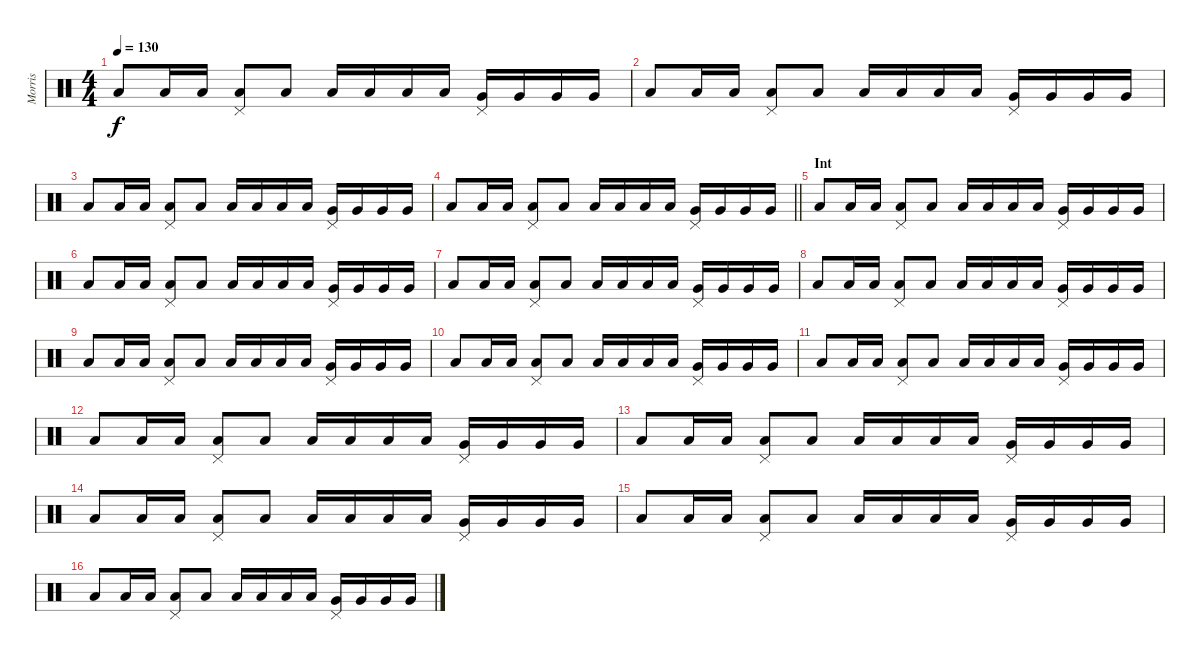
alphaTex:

\track ("Morris" "Morris") {instrument percussion}
\staff {score}
\articulation defaults
\ts (4 4)
\tempo 130
\clef neutral
\ks c "Low Floor Tom (hit)".8{dy f} "Low Floor Tom (hit)".16 "Low Floor Tom (hit)".16
("Low Tom (hit)" "Pedal Hi-Hat (hit)").8 "Low Floor Tom (hit)".8 "Low Tom (hit)".16 "Low Tom (hit)".16 "Low Tom (hit)".16 "Low Tom (hit)".16 ("Very Low Tom (hit)" "Pedal Hi-Hat (hit)").16 "Very Low Tom (hit)".16 "Very Low Tom (hit)".16 "Very Low Tom (hit)".16 |
"Low Floor Tom (hit)".8 "Low Floor Tom (hit)".16 "Low Floor Tom (hit)".16 ("Low Tom (hit)" "Pedal Hi-Hat (hit)").8 "Low Floor Tom (hit)".8 "Low Tom (hit)".16 "Low Tom (hit)".16 "Low Tom (hit)".16 "Low Tom (hit)".16 ("Very Low Tom (hit)" "Pedal Hi-Hat (hit)").16 "Very Low Tom (hit)".16 "Very Low Tom (hit)".16 "Very Low Tom (hit)".16 |
"Low Floor Tom (hit)".8 "Low Floor Tom (hit)".16 "Low Floor Tom (hit)".16 ("Low Tom (hit)" "Pedal Hi-Hat (hit)").8 "Low Floor Tom (hit)".8 "Low Tom (hit)".16 "Low Tom (hit)".16 "Low Tom (hit)".16 "Low Tom (hit)".16 ("Very Low Tom (hit)" "Pedal Hi-Hat (hit)").16 "Very Low Tom (hit)".16 "Very Low Tom (hit)".16 "Very Low Tom (hit)".16 |
\barLineRight lightlight "Low Floor Tom (hit)".8 "Low Floor Tom (hit)".16 "Low Floor Tom (hit)".16
("Low Tom (hit)" "Pedal Hi-Hat (hit)").8 "Low Floor Tom (hit)".8 "Low Tom (hit)".16 "Low Tom (hit)".16 "Low Tom (hit)".16 "Low Tom (hit)".16 ("Very Low Tom (hit)" "Pedal Hi-Hat (hit)").16 "Very Low Tom (hit)".16 "Very Low Tom (hit)".16 "Very Low Tom (hit)".16 |
\section ("" "Int")
"Low Floor Tom (hit)".8 "Low Floor Tom (hit)".16 "Low Floor Tom (hit)".16 ("Low Tom (hit)" "Pedal Hi-Hat (hit)").8 "Low Floor Tom (hit)".8 "Low Tom (hit)".16 "Low Tom (hit)".16 "Low Tom (hit)".16 "Low Tom (hit)".16 ("Very Low Tom (hit)" "Pedal Hi-Hat (hit)").16 "Very Low Tom (hit)".16 "Very Low Tom (hit)".16 "Very Low Tom (hit)".16 |
"Low Floor Tom (hit)".8 "Low Floor Tom (hit)".16 "Low Floor Tom (hit)".16 ("Low Tom (hit)" "Pedal Hi-Hat (hit)").8 "Low Floor Tom (hit)".8 "Low Tom (hit)".16 "Low Tom (hit)".16 "Low Tom (hit)".16 "Low Tom (hit)".16 ("Very Low Tom (hit)" "Pedal Hi-Hat (hit)").16 "Very Low Tom (hit)".16 "Very Low Tom (hit)".16 "Very Low Tom (hit)".16 |
"Low Floor Tom (hit)".8 "Low Floor Tom (hit)".16 "Low Floor Tom (hit)".16 ("Low Tom (hit)" "Pedal Hi-Hat (hit)").8 "Low Floor Tom (hit)".8 "Low Tom (hit)".16 "Low Tom (hit)".16 "Low Tom (hit)".16 "Low Tom (hit)".16 ("Very Low Tom (hit)" "Pedal Hi-Hat (hit)").16 "Very Low Tom (hit)".16 "Very Low Tom (hit)".16 "Very Low Tom (hit)".16 |
"Low Floor Tom (hit)".8 "Low Floor Tom (hit)".16 "Low Floor Tom (hit)".16 ("Low Tom (hit)" "Pedal Hi-Hat (hit)").8 "Low Floor Tom (hit)".8 "Low Tom (hit)".16 "Low Tom (hit)".16 "Low Tom (hit)".16 "Low Tom (hit)".16 ("Very Low Tom (hit)" "Pedal Hi-Hat (hit)").16 "Very Low Tom (hit)".16 "Very Low Tom (hit)".16 "Very Low Tom (hit)".16 |
"Low Floor Tom (hit)".8 "Low Floor Tom (hit)".16 "Low Floor Tom (hit)".16 ("Low Tom (hit)" "Pedal Hi-Hat (hit)").8 "Low Floor Tom (hit)".8 "Low Tom (hit)".16 "Low Tom (hit)".16 "Low Tom (hit)".16 "Low Tom (hit)".16 ("Very Low Tom (hit)" "Pedal Hi-Hat (hit)").16 "Very Low Tom (hit)".16 "Very Low Tom (hit)".16 "Very Low Tom (hit)".16 |
"Low Floor Tom (hit)".8 "Low Floor Tom (hit)".16 "Low Floor Tom (hit)".16 ("Low Tom (hit)" "Pedal Hi-Hat (hit)").8 "Low Floor Tom (hit)".8 "Low Tom (hit)".16 "Low Tom (hit)".16 "Low Tom (hit)".16 "Low Tom (hit)".16 ("Very Low Tom (hit)" "Pedal Hi-Hat (hit)").16 "Very Low Tom (hit)".16 "Very Low Tom (hit)".16 "Very Low Tom (hit)".16 |
"Low Floor Tom (hit)".8 "Low Floor Tom (hit)".16 "Low Floor Tom (hit)".16 ("Low Tom (hit)" "Pedal Hi-Hat (hit)").8 "Low Floor Tom (hit)".8 "Low Tom (hit)".16 "Low Tom (hit)".16 "Low Tom (hit)".16 "Low Tom (hit)".16 ("Very Low Tom (hit)" "Pedal Hi-Hat (hit)").16 "Very Low Tom (hit)".16 "Very Low Tom (hit)".16 "Very Low Tom (hit)".16 |
"Low Floor Tom (hit)".8 "Low Floor Tom (hit)".16 "Low Floor Tom (hit)".16 ("Low Tom (hit)" "Pedal Hi-Hat (hit)").8 "Low Floor Tom (hit)".8 "Low Tom (hit)".16 "Low Tom (hit)".16 "Low Tom (hit)".16 "Low Tom (hit)".16 ("Very Low Tom (hit)" "Pedal Hi-Hat (hit)").16 "Very Low Tom (hit)".16 "Very Low Tom (hit)".16 "Very Low Tom (hit)".16 |
"Low Floor Tom (hit)".8 "Low Floor Tom (hit)".16 "Low Floor Tom (hit)".16 ("Low Tom (hit)" "Pedal Hi-Hat (hit)").8 "Low Floor Tom (hit)".8 "Low Tom (hit)".16 "Low Tom (hit)".16 "Low Tom (hit)".16 "Low Tom (hit)".16 ("Very Low Tom (hit)" "Pedal Hi-Hat (hit)").16 "Very Low Tom (hit)".16 "Very Low Tom (hit)".16 "Very Low Tom (hit)".16 |
"Low Floor Tom (hit)".8 "Low Floor Tom (hit)".16 "Low Floor Tom (hit)".16 ("Low Tom (hit)" "Pedal Hi-Hat (hit)").8 "Low Floor Tom (hit)".8 "Low Tom (hit)".16 "Low Tom (hit)".16 "Low Tom (hit)".16 "Low Tom (hit)".16 ("Very Low Tom (hit)" "Pedal Hi-Hat (hit)").16 "Very Low Tom (hit)".16 "Very Low Tom (hit)".16 "Very Low Tom (hit)".16 |
"Low Floor Tom (hit)".8 "Low Floor Tom (hit)".16 "Low Floor Tom (hit)".16 ("Low Tom (hit)" "Pedal Hi-Hat (hit)").8 "Low Floor Tom (hit)".8 "Low Tom (hit)".16 "Low Tom (hit)".16 "Low Tom (hit)".16 "Low Tom (hit)".16 ("Very Low Tom (hit)" "Pedal Hi-Hat (hit)").16 "Very Low Tom (hit)".16 "Very Low Tom (hit)".16 "Very Low Tom (hit)".16 |
"Low Floor Tom (hit)".8 "Low Floor Tom (hit)".16 "Low Floor Tom (hit)".16 ("Low Tom (hit)" "Pedal Hi-Hat (hit)").8 "Low Floor Tom (hit)".8 "Low Tom (hit)".16 "Low Tom (hit)".16 "Low Tom (hit)".16 "Low Tom (hit)".16 ("Very Low Tom (hit)" "Pedal Hi-Hat (hit)").16 "Very Low Tom (hit)".16 "Very Low Tom (hit)".16 "Very Low Tom (hit)".16
